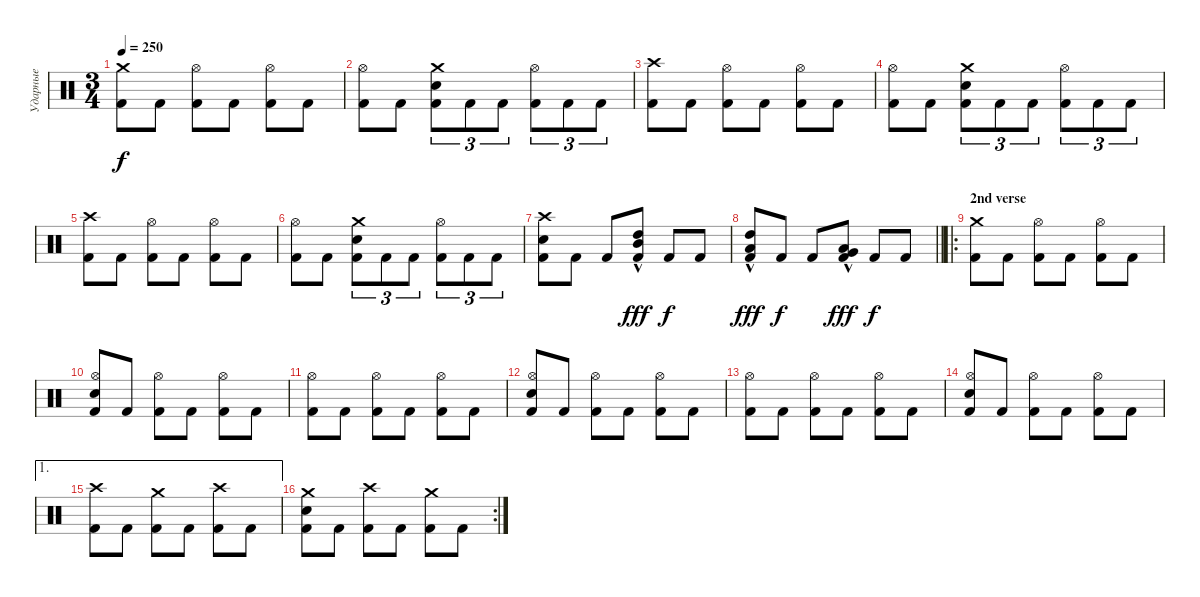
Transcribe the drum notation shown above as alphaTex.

\track ("Ударные" "Ударные") {instrument percussion}
\staff {score}
\articulation defaults
\ts (3 4)
\tempo 250
\clef neutral
\ks c
("Crash medium (hit)" "Kick (hit) 2").8{dy f} "Kick (hit) 2".8 ("Hi-Hat (open)" "Kick (hit) 2").8 "Kick (hit) 2".8 ("Hi-Hat (open)" "Kick (hit) 2").8 "Kick (hit) 2".8 |
("Hi-Hat (open)" "Kick (hit) 2").8 "Kick (hit) 2".8 ("Crash medium (hit)" "Electric Snare (hit)" "Kick (hit) 2").8{tu (3 2)} "Kick (hit) 2".8{tu (3 2)} "Kick (hit) 2".8{tu (3 2)} ("Hi-Hat (open)" "Kick (hit) 2").8{tu (3 2)} "Kick (hit) 2".8{tu (3 2)} "Kick (hit) 2".8{tu (3 2)} |
("Crash high (hit)" "Kick (hit) 2").8 "Kick (hit) 2".8 ("Hi-Hat (open)" "Kick (hit) 2").8 "Kick (hit) 2".8 ("Hi-Hat (open)" "Kick (hit) 2").8 "Kick (hit) 2".8 |
("Hi-Hat (open)" "Kick (hit) 2").8 "Kick (hit) 2".8 ("Crash medium (hit)" "Electric Snare (hit)" "Kick (hit) 2").8{tu (3 2)} "Kick (hit) 2".8{tu (3 2)} "Kick (hit) 2".8{tu (3 2)} ("Hi-Hat (open)" "Kick (hit) 2").8{tu (3 2)} "Kick (hit) 2".8{tu (3 2)} "Kick (hit) 2".8{tu (3 2)} |
("Crash high (hit)" "Kick (hit) 2").8 "Kick (hit) 2".8 ("Hi-Hat (open)" "Kick (hit) 2").8 "Kick (hit) 2".8 ("Hi-Hat (open)" "Kick (hit) 2").8 "Kick (hit) 2".8 |
("Hi-Hat (open)" "Kick (hit) 2").8 "Kick (hit) 2".8 ("Crash medium (hit)" "Electric Snare (hit)" "Kick (hit) 2").8{tu (3 2)} "Kick (hit) 2".8{tu (3 2)} "Kick (hit) 2".8{tu (3 2)} ("Hi-Hat (open)" "Kick (hit) 2").8{tu (3 2)} "Kick (hit) 2".8{tu (3 2)} "Kick (hit) 2".8{tu (3 2)} |
("Electric Snare (hit)" "Crash high (hit)" "Kick (hit) 2").8 "Kick (hit) 2".8 "Kick (hit) 2".8 ("High Tom (hit)"{hac} "Mid Tom (hit)"{hac} "Kick (hit) 2").8{dy fff} "Kick (hit) 2".8{dy f} "Kick (hit) 2".8 |
\barLineRight lightlight
("High Tom (hit)"{hac} "Low Tom (hit)"{hac} "Kick (hit) 2").8{dy fff} "Kick (hit) 2".8{dy f} "Kick (hit) 2".8 ("Low Tom (hit)"{hac} "Very Low Tom (hit)"{hac} "Kick (hit) 2").8{dy fff} "Kick (hit) 2".8{dy f} "Kick (hit) 2".8 |
\ro
\section ("" "2nd verse")
("Crash medium (hit)" "Kick (hit) 2").8 "Kick (hit) 2".8 ("Hi-Hat (open)" "Kick (hit) 2").8 "Kick (hit) 2".8 ("Hi-Hat (open)" "Kick (hit) 2").8 "Kick (hit) 2".8 |
("Electric Snare (hit)" "Hi-Hat (open)" "Kick (hit) 2").8 "Kick (hit) 2".8 ("Hi-Hat (open)" "Kick (hit) 2").8 "Kick (hit) 2".8 ("Hi-Hat (open)" "Kick (hit) 2").8 "Kick (hit) 2".8 |
("Hi-Hat (open)" "Kick (hit) 2").8 "Kick (hit) 2".8 ("Hi-Hat (open)" "Kick (hit) 2").8 "Kick (hit) 2".8 ("Hi-Hat (open)" "Kick (hit) 2").8 "Kick (hit) 2".8 |
("Electric Snare (hit)" "Hi-Hat (open)" "Kick (hit) 2").8 "Kick (hit) 2".8 ("Hi-Hat (open)" "Kick (hit) 2").8 "Kick (hit) 2".8 ("Hi-Hat (open)" "Kick (hit) 2").8 "Kick (hit) 2".8 |
("Hi-Hat (open)" "Kick (hit) 2").8 "Kick (hit) 2".8 ("Hi-Hat (open)" "Kick (hit) 2").8 "Kick (hit) 2".8 ("Hi-Hat (open)" "Kick (hit) 2").8 "Kick (hit) 2".8 |
("Electric Snare (hit)" "Hi-Hat (open)" "Kick (hit) 2").8 "Kick (hit) 2".8 ("Hi-Hat (open)" "Kick (hit) 2").8 "Kick (hit) 2".8 ("Hi-Hat (open)" "Kick (hit) 2").8 "Kick (hit) 2".8 |
\ae 1
("Crash high (hit)" "Kick (hit) 2").8 "Kick (hit) 2".8 ("Crash medium (hit)" "Kick (hit) 2").8 "Kick (hit) 2".8 ("Crash high (hit)" "Kick (hit) 2").8 "Kick (hit) 2".8 |
\rc 2
("Electric Snare (hit)" "Crash medium (hit)" "Kick (hit) 2").8 "Kick (hit) 2".8 ("Crash high (hit)" "Kick (hit) 2").8 "Kick (hit) 2".8 ("Crash medium (hit)" "Kick (hit) 2").8 "Kick (hit) 2".8
